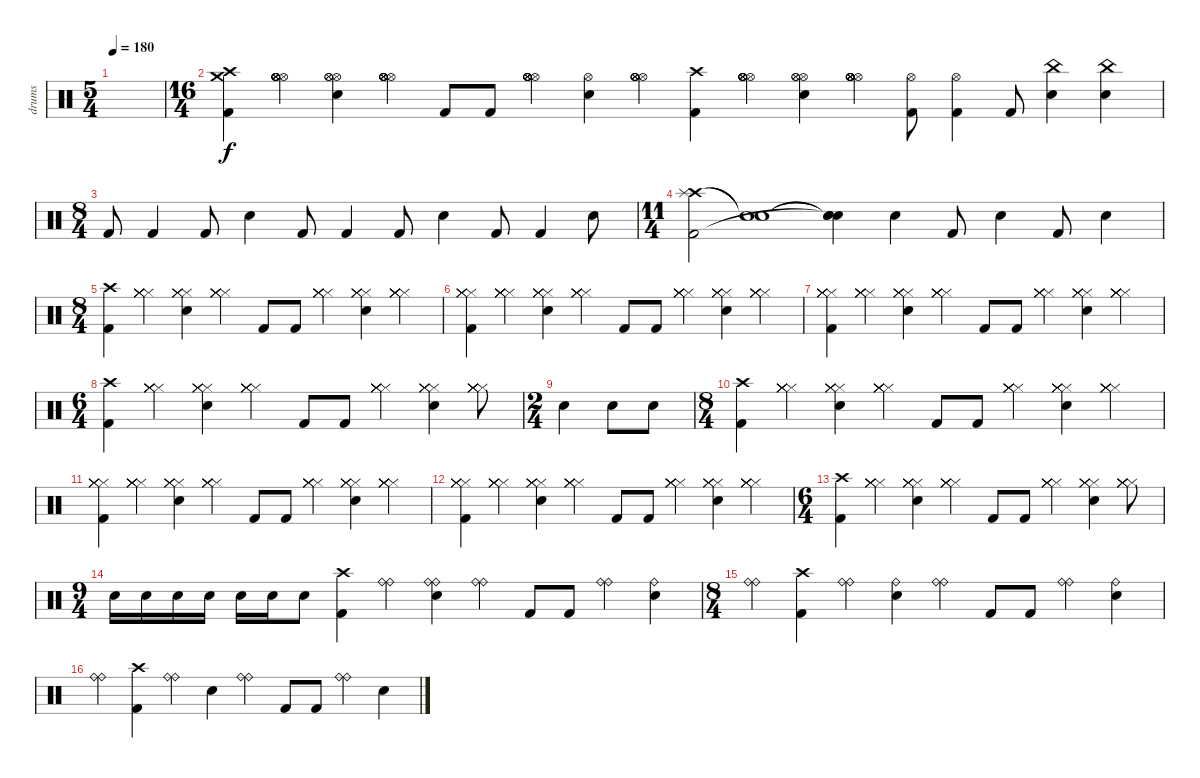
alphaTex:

\track ("drums" "drums") {instrument percussion}
\staff {score}
\articulation defaults
\ts (5 4)
\tempo 180
\clef neutral
\ks c
|
\ts (16 4)
("Crash medium (hit)" "Crash high (hit)" "Kick (hit) 2").4 ("Hi-Hat (open)" "Hi-Hat (open)" "Hi-Hat (open)" "Hi-Hat (open)" "Hi-Hat (open)" "Hi-Hat (open)").4 ("Electric Snare (hit)" "Hi-Hat (open)" "Hi-Hat (open)" "Hi-Hat (open)").4 ("Hi-Hat (open)" "Hi-Hat (open)" "Hi-Hat (open)" "Hi-Hat (open)" "Hi-Hat (open)" "Hi-Hat (open)").4 "Kick (hit) 2".8 "Kick (hit) 2".8 ("Hi-Hat (open)" "Hi-Hat (open)" "Hi-Hat (open)" "Hi-Hat (open)" "Hi-Hat (open)" "Hi-Hat (open)").4 ("Snare (hit) 2" "Hi-Hat (open)").4 ("Hi-Hat (open)" "Hi-Hat (open)" "Hi-Hat (open)" "Hi-Hat (open)" "Hi-Hat (open)").4 ("Crash high (hit)" "Kick (hit) 2").4 ("Hi-Hat (open)" "Hi-Hat (open)" "Hi-Hat (open)" "Hi-Hat (open)" "Hi-Hat (open)" "Hi-Hat (open)").4 ("Snare (hit) 2" "Hi-Hat (open)" "Hi-Hat (open)" "Hi-Hat (open)").4 ("Hi-Hat (open)" "Hi-Hat (open)" "Hi-Hat (open)" "Hi-Hat (open)" "Hi-Hat (open)" "Hi-Hat (open)").4 ("Kick (hit) 2" "Hi-Hat (open)").8 ("Kick (hit) 2" "Hi-Hat (open)").4 "Kick (hit) 2".8 ("Snare (hit) 2" "China (hit)").4 ("Snare (hit) 2" "China (hit)").4 |
\ts (8 4)
"Kick (hit) 2".8 "Kick (hit) 2".4 "Kick (hit) 2".8 "Snare (hit) 2".4 "Kick (hit) 2".8 "Kick (hit) 2".4 "Kick (hit) 2".8 "Snare (hit) 2".4 "Kick (hit) 2".8 "Kick (hit) 2".4 "Snare (hit)".8 |
\ts (11 4)
("Crash high (hit)" "Splash (hit)" "Kick (hit) 2").2 ("Snare (hit)"{t} "Snare (hit)"{t}).1 ("Snare (hit)"{t} "Snare (hit)"{t} "Snare (hit)"{t}).4 "Snare (hit) 2".4 "Kick (hit) 2".8 "Snare (hit) 2".4 "Kick (hit) 2".8 "Snare (hit) 2".4 |
\ts (8 4)
("Crash high (hit)" "Kick (hit) 2").4 ("Hi-Hat (closed)" "Hi-Hat (closed)" "Hi-Hat (closed)" "Hi-Hat (closed)" "Hi-Hat (closed)" "Hi-Hat (closed)").4 ("Snare (hit) 2" "Hi-Hat (closed)" "Hi-Hat (closed)" "Hi-Hat (closed)" "Hi-Hat (closed)" "Hi-Hat (closed)").4 ("Hi-Hat (closed)" "Hi-Hat (closed)" "Hi-Hat (closed)" "Hi-Hat (closed)" "Hi-Hat (closed)" "Hi-Hat (closed)").4 "Kick (hit) 2".8 "Kick (hit) 2".8 ("Hi-Hat (closed)" "Hi-Hat (closed)" "Hi-Hat (closed)" "Hi-Hat (closed)" "Hi-Hat (closed)" "Hi-Hat (closed)").4 ("Snare (hit) 2" "Hi-Hat (closed)" "Hi-Hat (closed)" "Hi-Hat (closed)" "Hi-Hat (closed)" "Hi-Hat (closed)").4 ("Hi-Hat (closed)" "Hi-Hat (closed)" "Hi-Hat (closed)" "Hi-Hat (closed)" "Hi-Hat (closed)" "Hi-Hat (closed)").4 |
("Kick (hit) 2" "Hi-Hat (closed)" "Hi-Hat (closed)" "Hi-Hat (closed)" "Hi-Hat (closed)" "Hi-Hat (closed)").4 ("Hi-Hat (closed)" "Hi-Hat (closed)" "Hi-Hat (closed)" "Hi-Hat (closed)" "Hi-Hat (closed)" "Hi-Hat (closed)").4 ("Snare (hit) 2" "Hi-Hat (closed)" "Hi-Hat (closed)" "Hi-Hat (closed)" "Hi-Hat (closed)" "Hi-Hat (closed)").4 ("Hi-Hat (closed)" "Hi-Hat (closed)" "Hi-Hat (closed)" "Hi-Hat (closed)" "Hi-Hat (closed)" "Hi-Hat (closed)").4 "Kick (hit) 2".8 "Kick (hit) 2".8 ("Hi-Hat (closed)" "Hi-Hat (closed)" "Hi-Hat (closed)" "Hi-Hat (closed)" "Hi-Hat (closed)" "Hi-Hat (closed)").4 ("Snare (hit) 2" "Hi-Hat (closed)" "Hi-Hat (closed)" "Hi-Hat (closed)" "Hi-Hat (closed)" "Hi-Hat (closed)").4 ("Hi-Hat (closed)" "Hi-Hat (closed)" "Hi-Hat (closed)" "Hi-Hat (closed)" "Hi-Hat (closed)" "Hi-Hat (closed)").4 |
("Kick (hit) 2" "Hi-Hat (closed)" "Hi-Hat (closed)" "Hi-Hat (closed)" "Hi-Hat (closed)" "Hi-Hat (closed)").4 ("Hi-Hat (closed)" "Hi-Hat (closed)" "Hi-Hat (closed)" "Hi-Hat (closed)" "Hi-Hat (closed)" "Hi-Hat (closed)").4 ("Snare (hit) 2" "Hi-Hat (closed)" "Hi-Hat (closed)" "Hi-Hat (closed)" "Hi-Hat (closed)" "Hi-Hat (closed)").4 ("Hi-Hat (closed)" "Hi-Hat (closed)" "Hi-Hat (closed)" "Hi-Hat (closed)" "Hi-Hat (closed)" "Hi-Hat (closed)").4 "Kick (hit) 2".8 "Kick (hit) 2".8 ("Hi-Hat (closed)" "Hi-Hat (closed)" "Hi-Hat (closed)" "Hi-Hat (closed)" "Hi-Hat (closed)" "Hi-Hat (closed)").4 ("Snare (hit) 2" "Hi-Hat (closed)" "Hi-Hat (closed)" "Hi-Hat (closed)" "Hi-Hat (closed)" "Hi-Hat (closed)").4 ("Hi-Hat (closed)" "Hi-Hat (closed)" "Hi-Hat (closed)" "Hi-Hat (closed)" "Hi-Hat (closed)" "Hi-Hat (closed)").4 |
\ts (6 4)
("Kick (hit) 2" "Crash high (hit)").4 ("Hi-Hat (closed)" "Hi-Hat (closed)" "Hi-Hat (closed)" "Hi-Hat (closed)" "Hi-Hat (closed)" "Hi-Hat (closed)").4 ("Snare (hit) 2" "Hi-Hat (closed)" "Hi-Hat (closed)" "Hi-Hat (closed)" "Hi-Hat (closed)" "Hi-Hat (closed)").4 ("Hi-Hat (closed)" "Hi-Hat (closed)" "Hi-Hat (closed)" "Hi-Hat (closed)" "Hi-Hat (closed)" "Hi-Hat (closed)").4 "Kick (hit) 2".8 "Kick (hit) 2".8 ("Hi-Hat (closed)" "Hi-Hat (closed)" "Hi-Hat (closed)" "Hi-Hat (closed)" "Hi-Hat (closed)" "Hi-Hat (closed)").4 ("Snare (hit) 2" "Hi-Hat (closed)" "Hi-Hat (closed)" "Hi-Hat (closed)" "Hi-Hat (closed)" "Hi-Hat (closed)").4 ("Hi-Hat (closed)" "Hi-Hat (closed)" "Hi-Hat (closed)" "Hi-Hat (closed)" "Hi-Hat (closed)" "Hi-Hat (closed)").8 |
\ts (2 4)
"Snare (hit) 2".4 "Snare (hit) 2".8 "Snare (hit) 2".8 |
\ts (8 4)
("Crash high (hit)" "Kick (hit) 2").4 ("Hi-Hat (closed)" "Hi-Hat (closed)" "Hi-Hat (closed)" "Hi-Hat (closed)" "Hi-Hat (closed)" "Hi-Hat (closed)").4 ("Snare (hit) 2" "Hi-Hat (closed)" "Hi-Hat (closed)" "Hi-Hat (closed)" "Hi-Hat (closed)" "Hi-Hat (closed)").4 ("Hi-Hat (closed)" "Hi-Hat (closed)" "Hi-Hat (closed)" "Hi-Hat (closed)" "Hi-Hat (closed)" "Hi-Hat (closed)").4 "Kick (hit) 2".8 "Kick (hit) 2".8 ("Hi-Hat (closed)" "Hi-Hat (closed)" "Hi-Hat (closed)" "Hi-Hat (closed)" "Hi-Hat (closed)" "Hi-Hat (closed)").4 ("Snare (hit) 2" "Hi-Hat (closed)" "Hi-Hat (closed)" "Hi-Hat (closed)" "Hi-Hat (closed)" "Hi-Hat (closed)").4 ("Hi-Hat (closed)" "Hi-Hat (closed)" "Hi-Hat (closed)" "Hi-Hat (closed)" "Hi-Hat (closed)" "Hi-Hat (closed)").4 |
("Kick (hit) 2" "Hi-Hat (closed)" "Hi-Hat (closed)" "Hi-Hat (closed)" "Hi-Hat (closed)" "Hi-Hat (closed)").4 ("Hi-Hat (closed)" "Hi-Hat (closed)" "Hi-Hat (closed)" "Hi-Hat (closed)" "Hi-Hat (closed)" "Hi-Hat (closed)").4 ("Snare (hit) 2" "Hi-Hat (closed)" "Hi-Hat (closed)" "Hi-Hat (closed)" "Hi-Hat (closed)" "Hi-Hat (closed)").4 ("Hi-Hat (closed)" "Hi-Hat (closed)" "Hi-Hat (closed)" "Hi-Hat (closed)" "Hi-Hat (closed)" "Hi-Hat (closed)").4 "Kick (hit) 2".8 "Kick (hit) 2".8 ("Hi-Hat (closed)" "Hi-Hat (closed)" "Hi-Hat (closed)" "Hi-Hat (closed)" "Hi-Hat (closed)" "Hi-Hat (closed)").4 ("Snare (hit) 2" "Hi-Hat (closed)" "Hi-Hat (closed)" "Hi-Hat (closed)" "Hi-Hat (closed)" "Hi-Hat (closed)").4 ("Hi-Hat (closed)" "Hi-Hat (closed)" "Hi-Hat (closed)" "Hi-Hat (closed)" "Hi-Hat (closed)" "Hi-Hat (closed)").4 |
("Kick (hit) 2" "Hi-Hat (closed)" "Hi-Hat (closed)" "Hi-Hat (closed)" "Hi-Hat (closed)" "Hi-Hat (closed)").4 ("Hi-Hat (closed)" "Hi-Hat (closed)" "Hi-Hat (closed)" "Hi-Hat (closed)" "Hi-Hat (closed)" "Hi-Hat (closed)").4 ("Snare (hit) 2" "Hi-Hat (closed)" "Hi-Hat (closed)" "Hi-Hat (closed)" "Hi-Hat (closed)" "Hi-Hat (closed)").4 ("Hi-Hat (closed)" "Hi-Hat (closed)" "Hi-Hat (closed)" "Hi-Hat (closed)" "Hi-Hat (closed)" "Hi-Hat (closed)").4 "Kick (hit) 2".8 "Kick (hit) 2".8 ("Hi-Hat (closed)" "Hi-Hat (closed)" "Hi-Hat (closed)" "Hi-Hat (closed)" "Hi-Hat (closed)" "Hi-Hat (closed)").4 ("Snare (hit) 2" "Hi-Hat (closed)" "Hi-Hat (closed)" "Hi-Hat (closed)" "Hi-Hat (closed)" "Hi-Hat (closed)").4 ("Hi-Hat (closed)" "Hi-Hat (closed)" "Hi-Hat (closed)" "Hi-Hat (closed)" "Hi-Hat (closed)" "Hi-Hat (closed)").4 |
\ts (6 4)
("Kick (hit) 2" "Crash high (hit)").4 ("Hi-Hat (closed)" "Hi-Hat (closed)" "Hi-Hat (closed)" "Hi-Hat (closed)" "Hi-Hat (closed)" "Hi-Hat (closed)").4 ("Snare (hit) 2" "Hi-Hat (closed)" "Hi-Hat (closed)" "Hi-Hat (closed)" "Hi-Hat (closed)" "Hi-Hat (closed)").4 ("Hi-Hat (closed)" "Hi-Hat (closed)" "Hi-Hat (closed)" "Hi-Hat (closed)" "Hi-Hat (closed)" "Hi-Hat (closed)").4 "Kick (hit) 2".8 "Kick (hit) 2".8 ("Hi-Hat (closed)" "Hi-Hat (closed)" "Hi-Hat (closed)" "Hi-Hat (closed)" "Hi-Hat (closed)" "Hi-Hat (closed)").4 ("Snare (hit) 2" "Hi-Hat (closed)" "Hi-Hat (closed)" "Hi-Hat (closed)" "Hi-Hat (closed)" "Hi-Hat (closed)").4 ("Hi-Hat (closed)" "Hi-Hat (closed)" "Hi-Hat (closed)" "Hi-Hat (closed)" "Hi-Hat (closed)" "Hi-Hat (closed)").8 |
\ts (9 4)
"Snare (hit) 2".16 "Snare (hit) 2".16 "Snare (hit) 2".16 "Snare (hit) 2".16 "Snare (hit) 2".16 "Snare (hit) 2".16 "Snare (hit) 2".8 ("Crash high (hit)" "Kick (hit) 2").4 ("Ride (bell)" "Ride (bell)").4 ("Snare (hit) 2" "Ride (bell)" "Ride (bell)").4 ("Ride (bell)" "Ride (bell)").4 "Kick (hit) 2".8 "Kick (hit) 2".8 ("Ride (bell)" "Ride (bell)").4 ("Snare (hit) 2" "Ride (bell)").4 |
\ts (8 4)
("Ride (bell)" "Ride (bell)").4 ("Crash high (hit)" "Kick (hit) 2").4 ("Ride (bell)" "Ride (bell)").4 ("Snare (hit) 2" "Ride (bell)").4 ("Ride (bell)" "Ride (bell)").4 "Kick (hit) 2".8 "Kick (hit) 2".8 ("Ride (bell)" "Ride (bell)").4 ("Snare (hit) 2" "Ride (bell)").4 |
("Ride (bell)" "Ride (bell)").4 ("Crash high (hit)" "Kick (hit) 2").4 ("Ride (bell)" "Ride (bell)").4 "Snare (hit) 2".4 ("Ride (bell)" "Ride (bell)").4 "Kick (hit) 2".8 "Kick (hit) 2".8 ("Ride (bell)" "Ride (bell)").4 "Snare (hit) 2".4
